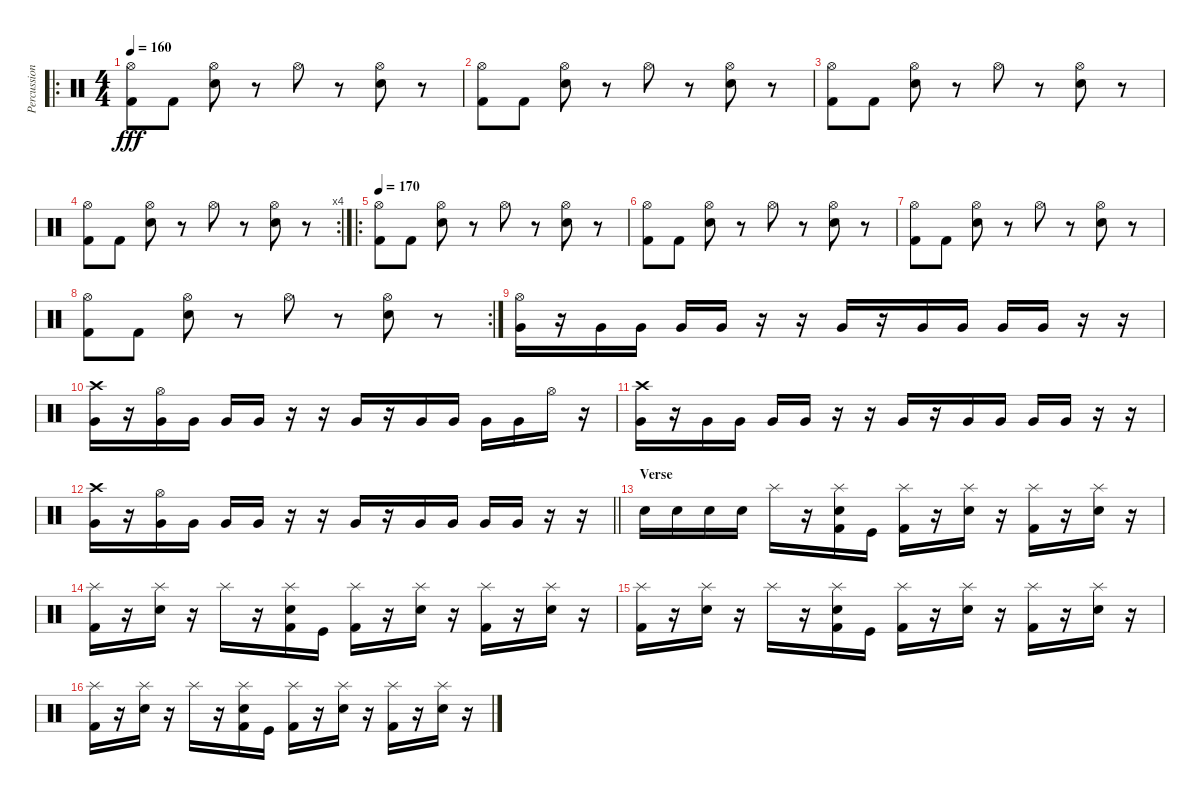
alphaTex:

\track ("Percussion" "Percussion") {instrument percussion}
\staff {score}
\articulation defaults
\ro
\ts (4 4)
\tempo 160
\clef neutral
\ks c
("Hi-Hat (open)" "Kick (hit) 2").8{dy fff} "Kick (hit) 2".8 ("Hi-Hat (open)" "Electric Snare (hit)").8 r.8 "Hi-Hat (open)".8 r.8 ("Hi-Hat (open)" "Electric Snare (hit)").8 r.8 |
("Hi-Hat (open)" "Kick (hit) 2").8 "Kick (hit) 2".8 ("Hi-Hat (open)" "Electric Snare (hit)").8 r.8 "Hi-Hat (open)".8 r.8 ("Hi-Hat (open)" "Electric Snare (hit)").8 r.8 |
("Hi-Hat (open)" "Kick (hit) 2").8 "Kick (hit) 2".8 ("Hi-Hat (open)" "Electric Snare (hit)").8 r.8 "Hi-Hat (open)".8 r.8 ("Hi-Hat (open)" "Electric Snare (hit)").8 r.8 |
\rc 4
("Hi-Hat (open)" "Kick (hit) 2").8 "Kick (hit) 2".8 ("Hi-Hat (open)" "Electric Snare (hit)").8 r.8 "Hi-Hat (open)".8 r.8 ("Hi-Hat (open)" "Electric Snare (hit)").8 r.8 |
\ro
\tempo 170
("Hi-Hat (open)" "Kick (hit) 2").8 "Kick (hit) 2".8 ("Hi-Hat (open)" "Electric Snare (hit)").8 r.8 "Hi-Hat (open)".8 r.8 ("Hi-Hat (open)" "Electric Snare (hit)").8 r.8 |
("Hi-Hat (open)" "Kick (hit) 2").8 "Kick (hit) 2".8 ("Hi-Hat (open)" "Electric Snare (hit)").8 r.8 "Hi-Hat (open)".8 r.8 ("Hi-Hat (open)" "Electric Snare (hit)").8 r.8 |
("Hi-Hat (open)" "Kick (hit) 2").8 "Kick (hit) 2".8 ("Hi-Hat (open)" "Electric Snare (hit)").8 r.8 "Hi-Hat (open)".8 r.8 ("Hi-Hat (open)" "Electric Snare (hit)").8 r.8 |
\rc 2
("Hi-Hat (open)" "Kick (hit) 2").8 "Kick (hit) 2".8 ("Hi-Hat (open)" "Electric Snare (hit)").8 r.8 "Hi-Hat (open)".8 r.8 ("Hi-Hat (open)" "Electric Snare (hit)").8 r.8 |
("Hi-Hat (open)" "Very Low Tom (hit)").16 r.16 "Very Low Tom (hit)".16 "Very Low Tom (hit)".16 "Very Low Tom (hit)".16 "Very Low Tom (hit)".16 r.16 r.16 "Very Low Tom (hit)".16 r.16 "Very Low Tom (hit)".16 "Very Low Tom (hit)".16 "Very Low Tom (hit)".16 "Very Low Tom (hit)".16 r.16 r.16 |
("Crash high (hit)" "Very Low Tom (hit)").16 r.16 ("Hi-Hat (open)" "Very Low Tom (hit)").16 "Very Low Tom (hit)".16 "Very Low Tom (hit)".16 "Very Low Tom (hit)".16 r.16 r.16 "Very Low Tom (hit)".16 r.16 "Very Low Tom (hit)".16 "Very Low Tom (hit)".16 "Very Low Tom (hit)".16 "Very Low Tom (hit)".16 "Hi-Hat (open)".16 r.16 |
("Crash high (hit)" "Very Low Tom (hit)").16 r.16 "Very Low Tom (hit)".16 "Very Low Tom (hit)".16 "Very Low Tom (hit)".16 "Very Low Tom (hit)".16 r.16 r.16 "Very Low Tom (hit)".16 r.16 "Very Low Tom (hit)".16 "Very Low Tom (hit)".16 "Very Low Tom (hit)".16 "Very Low Tom (hit)".16 r.16 r.16 |
\barLineRight lightlight
("Crash high (hit)" "Very Low Tom (hit)").16 r.16 ("Hi-Hat (open)" "Very Low Tom (hit)").16 "Very Low Tom (hit)".16 "Very Low Tom (hit)".16 "Very Low Tom (hit)".16 r.16 r.16 "Very Low Tom (hit)".16 r.16 "Very Low Tom (hit)".16 "Very Low Tom (hit)".16 "Very Low Tom (hit)".16 "Very Low Tom (hit)".16 r.16 r.16 |
\section ("" "Verse")
"Electric Snare (hit)".16 "Snare (hit) 2".16 "Electric Snare (hit)".16 "Electric Snare (hit)".16 "Splash (hit)".16 r.16 ("Splash (hit)" "Electric Snare (hit)" "Kick (hit) 2").16 "Kick (hit)".16 ("Splash (hit)" "Kick (hit) 2").16 r.16 ("Splash (hit)" "Electric Snare (hit)").16 r.16 ("Splash (hit)" "Kick (hit) 2").16 r.16 ("Splash (hit)" "Electric Snare (hit)").16 r.16 |
("Splash (hit)" "Kick (hit) 2").16 r.16 ("Splash (hit)" "Electric Snare (hit)").16 r.16 "Splash (hit)".16 r.16 ("Splash (hit)" "Electric Snare (hit)" "Kick (hit) 2").16 "Kick (hit)".16 ("Splash (hit)" "Kick (hit) 2").16 r.16 ("Splash (hit)" "Electric Snare (hit)").16 r.16 ("Splash (hit)" "Kick (hit) 2").16 r.16 ("Splash (hit)" "Electric Snare (hit)").16 r.16 |
("Splash (hit)" "Kick (hit) 2").16 r.16 ("Splash (hit)" "Electric Snare (hit)").16 r.16 "Splash (hit)".16 r.16 ("Splash (hit)" "Electric Snare (hit)" "Kick (hit) 2").16 "Kick (hit)".16 ("Splash (hit)" "Kick (hit) 2").16 r.16 ("Splash (hit)" "Electric Snare (hit)").16 r.16 ("Splash (hit)" "Kick (hit) 2").16 r.16 ("Splash (hit)" "Electric Snare (hit)").16 r.16 |
("Splash (hit)" "Kick (hit) 2").16 r.16 ("Splash (hit)" "Electric Snare (hit)").16 r.16 "Splash (hit)".16 r.16 ("Splash (hit)" "Electric Snare (hit)" "Kick (hit) 2").16 "Kick (hit)".16 ("Splash (hit)" "Kick (hit) 2").16 r.16 ("Splash (hit)" "Electric Snare (hit)").16 r.16 ("Splash (hit)" "Kick (hit) 2").16 r.16 ("Splash (hit)" "Electric Snare (hit)").16 r.16
